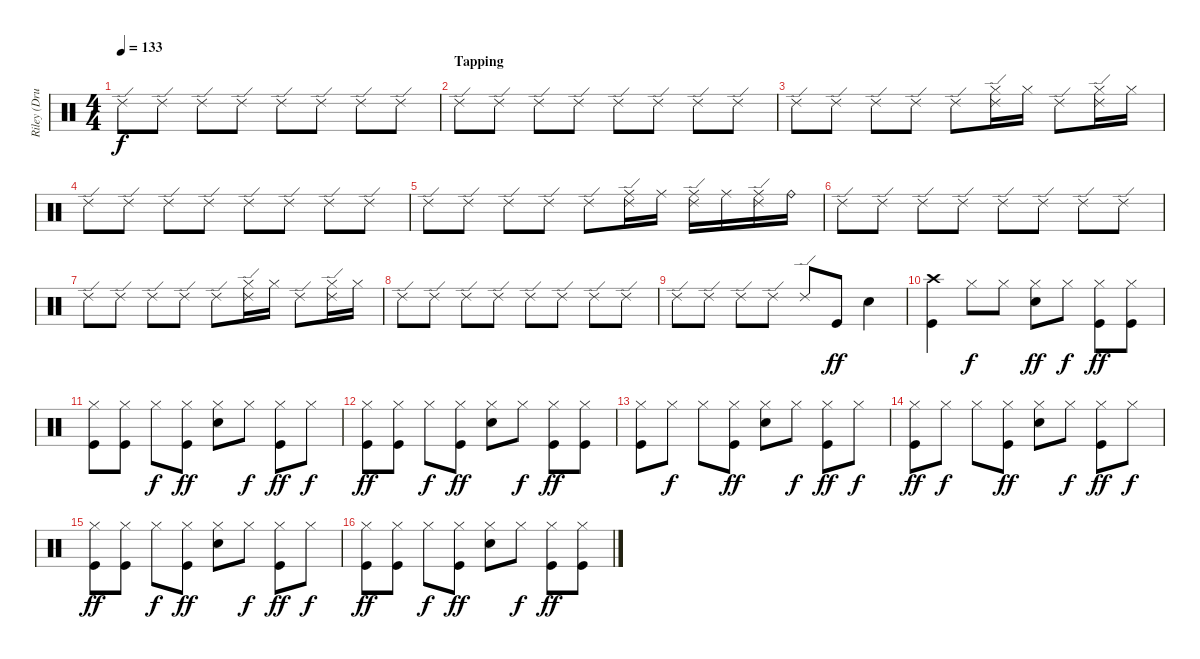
\track ("Riley (Drums)" "Riley (Dru") {instrument percussion}
\staff {score}
\articulation defaults
\ts (4 4)
\tempo 133
\clef neutral
\ks c "Ride (edge) 2".8{dy f} "Ride (edge) 2".8 "Ride (edge) 2".8 "Ride (edge) 2".8 "Ride (edge) 2".8 "Ride (edge) 2".8 "Ride (edge) 2".8 "Ride (edge) 2".8
|
\section ("" "Tapping")
"Ride (edge) 2".8 "Ride (edge) 2".8 "Ride (edge) 2".8 "Ride (edge) 2".8 "Ride (edge) 2".8 "Ride (edge) 2".8 "Ride (edge) 2".8 "Ride (edge) 2".8 |
"Ride (edge) 2".8 "Ride (edge) 2".8 "Ride (edge) 2".8 "Ride (edge) 2".8 "Ride (edge) 2".8 ("Ride (edge) 2" "Hi-Hat (closed)").16 "Hi-Hat (closed)".16 "Ride (edge) 2".8 ("Ride (edge) 2" "Hi-Hat (closed)").16 "Hi-Hat (closed)".16 |
"Ride (edge) 2".8 "Ride (edge) 2".8 "Ride (edge) 2".8 "Ride (edge) 2".8 "Ride (edge) 2".8 "Ride (edge) 2".8 "Ride (edge) 2".8 "Ride (edge) 2".8 |
"Ride (edge) 2".8 "Ride (edge) 2".8 "Ride (edge) 2".8 "Ride (edge) 2".8 "Ride (edge) 2".8 ("Ride (edge) 2" "Ride (middle)").16 "Ride (middle)".16 ("Ride (edge) 2" "Ride (middle)").16 "Ride (middle)".16 ("Ride (edge) 2" "Ride (middle)").16 "Ride (bell)".16 |
"Ride (edge) 2".8 "Ride (edge) 2".8 "Ride (edge) 2".8 "Ride (edge) 2".8 "Ride (edge) 2".8 "Ride (edge) 2".8 "Ride (edge) 2".8 "Ride (edge) 2".8 |
"Ride (edge) 2".8 "Ride (edge) 2".8 "Ride (edge) 2".8 "Ride (edge) 2".8 "Ride (edge) 2".8 ("Ride (edge) 2" "Hi-Hat (closed)").16 "Hi-Hat (closed)".16 "Ride (edge) 2".8 ("Ride (edge) 2" "Hi-Hat (closed)").16 "Hi-Hat (closed)".16 |
"Ride (edge) 2".8 "Ride (edge) 2".8 "Ride (edge) 2".8 "Ride (edge) 2".8 "Ride (edge) 2".8 "Ride (edge) 2".8 "Ride (edge) 2".8 "Ride (edge) 2".8 |
"Ride (edge) 2".8 "Ride (edge) 2".8 "Ride (edge) 2".8 "Ride (edge) 2".8 "Ride (edge) 2".8 "Kick (hit)".8{dy ff} "Electric Snare (hit)".4 |
("Crash high (hit)" "Kick (hit)").4 "Hi-Hat (closed)".8{dy f} "Hi-Hat (closed)".8 ("Hi-Hat (closed)" "Electric Snare (hit)").8{dy ff} "Hi-Hat (closed)".8{dy f} ("Hi-Hat (closed)" "Kick (hit)").8{dy ff} ("Hi-Hat (closed)" "Kick (hit)").8 |
("Hi-Hat (closed)" "Kick (hit)").8 ("Hi-Hat (closed)" "Kick (hit)").8 "Hi-Hat (closed)".8{dy f} ("Hi-Hat (closed)" "Kick (hit)").8{dy ff} ("Hi-Hat (closed)" "Electric Snare (hit)").8 "Hi-Hat (closed)".8{dy f} ("Hi-Hat (closed)" "Kick (hit)").8{dy ff} "Hi-Hat (closed)".8{dy f} |
("Hi-Hat (closed)" "Kick (hit)").8{dy ff} ("Hi-Hat (closed)" "Kick (hit)").8 "Hi-Hat (closed)".8{dy f} ("Hi-Hat (closed)" "Kick (hit)").8{dy ff} ("Hi-Hat (closed)" "Electric Snare (hit)").8 "Hi-Hat (closed)".8{dy f} ("Hi-Hat (closed)" "Kick (hit)").8{dy ff} ("Hi-Hat (closed)" "Kick (hit)").8 |
("Hi-Hat (closed)" "Kick (hit)").8 "Hi-Hat (closed)".8{dy f} "Hi-Hat (closed)".8 ("Hi-Hat (closed)" "Kick (hit)").8{dy ff} ("Hi-Hat (closed)" "Electric Snare (hit)").8 "Hi-Hat (closed)".8{dy f} ("Hi-Hat (closed)" "Kick (hit)").8{dy ff} "Hi-Hat (closed)".8{dy f} |
("Hi-Hat (closed)" "Kick (hit)").8{dy ff} "Hi-Hat (closed)".8{dy f} "Hi-Hat (closed)".8 ("Hi-Hat (closed)" "Kick (hit)").8{dy ff} ("Hi-Hat (closed)" "Electric Snare (hit)").8 "Hi-Hat (closed)".8{dy f} ("Hi-Hat (closed)" "Kick (hit)").8{dy ff} "Hi-Hat (closed)".8{dy f} |
("Hi-Hat (closed)" "Kick (hit)").8{dy ff} ("Hi-Hat (closed)" "Kick (hit)").8 "Hi-Hat (closed)".8{dy f} ("Hi-Hat (closed)" "Kick (hit)").8{dy ff} ("Hi-Hat (closed)" "Electric Snare (hit)").8 "Hi-Hat (closed)".8{dy f} ("Hi-Hat (closed)" "Kick (hit)").8{dy ff} "Hi-Hat (closed)".8{dy f} |
("Hi-Hat (closed)" "Kick (hit)").8{dy ff} ("Hi-Hat (closed)" "Kick (hit)").8 "Hi-Hat (closed)".8{dy f} ("Hi-Hat (closed)" "Kick (hit)").8{dy ff} ("Hi-Hat (closed)" "Electric Snare (hit)").8 "Hi-Hat (closed)".8{dy f} ("Hi-Hat (closed)" "Kick (hit)").8{dy ff} ("Hi-Hat (closed)" "Kick (hit)").8
